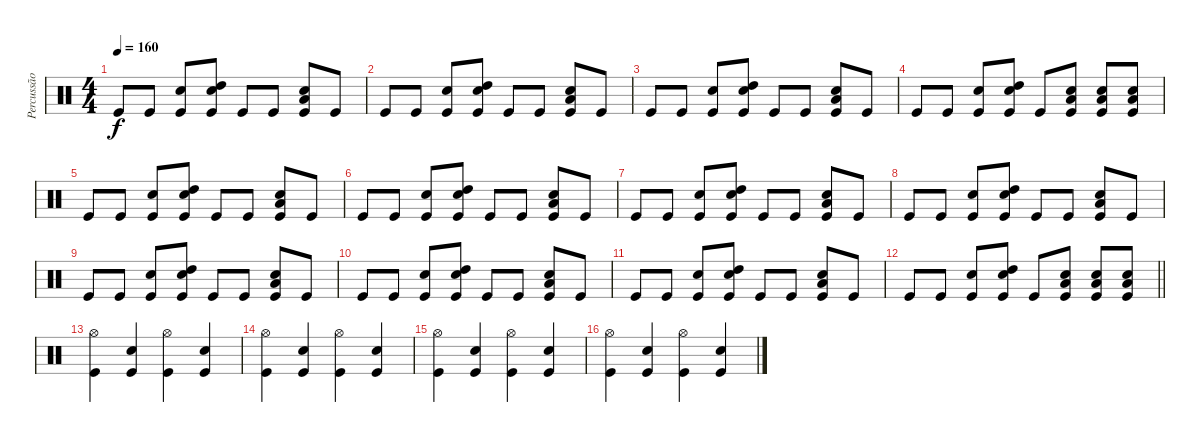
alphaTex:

\track ("Percussão" "Percussão") {instrument percussion}
\staff {score}
\articulation defaults
\ts (4 4)
\tempo 160
\clef neutral
\ks c "Kick (hit)".8{dy f} "Kick (hit)".8
("Snare (hit) 2" "Kick (hit)").8 ("Snare (hit) 2" "High Tom (hit)" "Kick (hit)").8 "Kick (hit)".8 "Kick (hit)".8 ("Snare (hit) 2" "Low Tom (hit)" "Kick (hit)").8 "Kick (hit)".8 |
"Kick (hit)".8 "Kick (hit)".8 ("Snare (hit) 2" "Kick (hit)").8 ("Snare (hit) 2" "High Tom (hit)" "Kick (hit)").8 "Kick (hit)".8 "Kick (hit)".8 ("Snare (hit) 2" "Low Tom (hit)" "Kick (hit)").8 "Kick (hit)".8 |
"Kick (hit)".8 "Kick (hit)".8 ("Snare (hit) 2" "Kick (hit)").8 ("Snare (hit) 2" "High Tom (hit)" "Kick (hit)").8 "Kick (hit)".8 "Kick (hit)".8 ("Snare (hit) 2" "Low Tom (hit)" "Kick (hit)").8 "Kick (hit)".8 |
"Kick (hit)".8 "Kick (hit)".8 ("Snare (hit) 2" "Kick (hit)").8 ("Snare (hit) 2" "High Tom (hit)" "Kick (hit)").8 "Kick (hit)".8 ("Snare (hit) 2" "Low Tom (hit)" "Kick (hit)").8 ("Snare (hit) 2" "Low Tom (hit)" "Kick (hit)").8 ("Snare (hit) 2" "Low Tom (hit)" "Kick (hit)").8 |
"Kick (hit)".8 "Kick (hit)".8 ("Snare (hit) 2" "Kick (hit)").8 ("Snare (hit) 2" "High Tom (hit)" "Kick (hit)").8 "Kick (hit)".8 "Kick (hit)".8 ("Snare (hit) 2" "Low Tom (hit)" "Kick (hit)").8 "Kick (hit)".8 |
"Kick (hit)".8 "Kick (hit)".8 ("Snare (hit) 2" "Kick (hit)").8 ("Snare (hit) 2" "High Tom (hit)" "Kick (hit)").8 "Kick (hit)".8 "Kick (hit)".8 ("Snare (hit) 2" "Low Tom (hit)" "Kick (hit)").8 "Kick (hit)".8 |
"Kick (hit)".8 "Kick (hit)".8 ("Snare (hit) 2" "Kick (hit)").8 ("Snare (hit) 2" "High Tom (hit)" "Kick (hit)").8 "Kick (hit)".8 "Kick (hit)".8 ("Snare (hit) 2" "Low Tom (hit)" "Kick (hit)").8 "Kick (hit)".8 |
"Kick (hit)".8 "Kick (hit)".8 ("Snare (hit) 2" "Kick (hit)").8 ("Snare (hit) 2" "High Tom (hit)" "Kick (hit)").8 "Kick (hit)".8 "Kick (hit)".8 ("Snare (hit) 2" "Low Tom (hit)" "Kick (hit)").8 "Kick (hit)".8 |
"Kick (hit)".8 "Kick (hit)".8 ("Snare (hit) 2" "Kick (hit)").8 ("Snare (hit) 2" "High Tom (hit)" "Kick (hit)").8 "Kick (hit)".8 "Kick (hit)".8 ("Snare (hit) 2" "Low Tom (hit)" "Kick (hit)").8 "Kick (hit)".8 |
"Kick (hit)".8 "Kick (hit)".8 ("Snare (hit) 2" "Kick (hit)").8 ("Snare (hit) 2" "High Tom (hit)" "Kick (hit)").8 "Kick (hit)".8 "Kick (hit)".8 ("Snare (hit) 2" "Low Tom (hit)" "Kick (hit)").8 "Kick (hit)".8 |
"Kick (hit)".8 "Kick (hit)".8 ("Snare (hit) 2" "Kick (hit)").8 ("Snare (hit) 2" "High Tom (hit)" "Kick (hit)").8 "Kick (hit)".8 "Kick (hit)".8 ("Snare (hit) 2" "Low Tom (hit)" "Kick (hit)").8 "Kick (hit)".8 |
\barLineRight lightlight "Kick (hit)".8 "Kick (hit)".8
("Snare (hit) 2" "Kick (hit)").8 ("Snare (hit) 2" "High Tom (hit)" "Kick (hit)").8 "Kick (hit)".8 ("Snare (hit) 2" "Low Tom (hit)" "Kick (hit)").8 ("Snare (hit) 2" "Low Tom (hit)" "Kick (hit)").8 ("Snare (hit) 2" "Low Tom (hit)" "Kick (hit)").8 |
("Hi-Hat (open)" "Kick (hit)").4 ("Snare (hit) 2" "Kick (hit)").4 ("Hi-Hat (open)" "Kick (hit)").4 ("Snare (hit) 2" "Kick (hit)").4 |
("Hi-Hat (open)" "Kick (hit)").4 ("Snare (hit) 2" "Kick (hit)").4 ("Hi-Hat (open)" "Kick (hit)").4 ("Snare (hit) 2" "Kick (hit)").4 |
("Hi-Hat (open)" "Kick (hit)").4 ("Snare (hit) 2" "Kick (hit)").4 ("Hi-Hat (open)" "Kick (hit)").4 ("Snare (hit) 2" "Kick (hit)").4 |
("Hi-Hat (open)" "Kick (hit)").4 ("Snare (hit) 2" "Kick (hit)").4 ("Hi-Hat (open)" "Kick (hit)").4 ("Snare (hit) 2" "Kick (hit)").4
